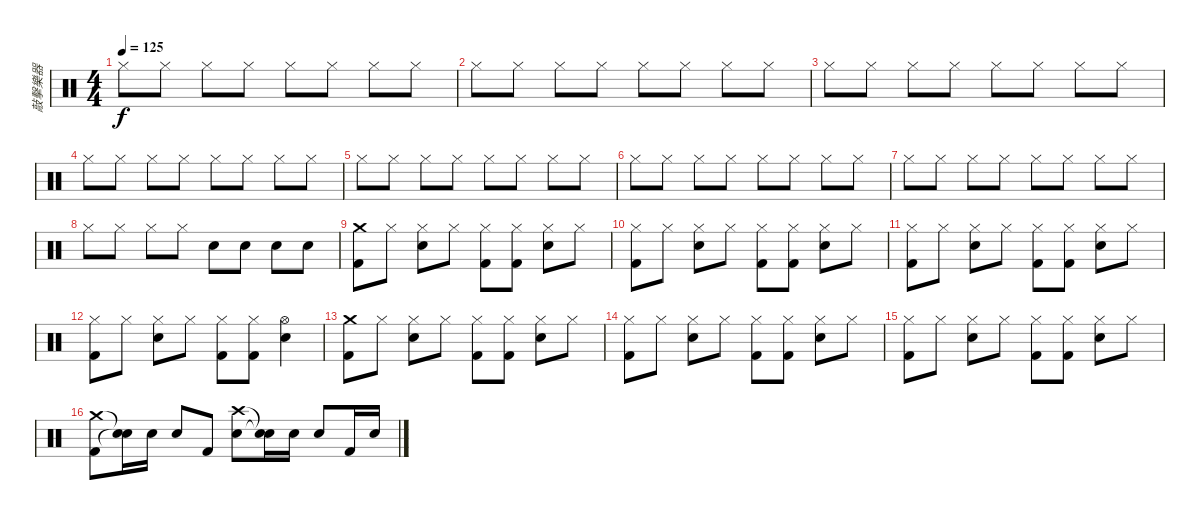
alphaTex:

\track ("敲擊樂器" "敲擊樂器") {instrument percussion}
\staff {score}
\articulation defaults
\ts (4 4)
\tempo 125
\clef neutral
\ks c "Hi-Hat (closed)".8{dy f} "Hi-Hat (closed)".8 "Hi-Hat (closed)".8 "Hi-Hat (closed)".8 "Hi-Hat (closed)".8 "Hi-Hat (closed)".8 "Hi-Hat (closed)".8 "Hi-Hat (closed)".8
|
"Hi-Hat (closed)".8 "Hi-Hat (closed)".8 "Hi-Hat (closed)".8 "Hi-Hat (closed)".8 "Hi-Hat (closed)".8 "Hi-Hat (closed)".8 "Hi-Hat (closed)".8 "Hi-Hat (closed)".8 |
"Hi-Hat (closed)".8 "Hi-Hat (closed)".8 "Hi-Hat (closed)".8 "Hi-Hat (closed)".8 "Hi-Hat (closed)".8 "Hi-Hat (closed)".8 "Hi-Hat (closed)".8 "Hi-Hat (closed)".8 |
"Hi-Hat (closed)".8 "Hi-Hat (closed)".8 "Hi-Hat (closed)".8 "Hi-Hat (closed)".8 "Hi-Hat (closed)".8 "Hi-Hat (closed)".8 "Hi-Hat (closed)".8 "Hi-Hat (closed)".8 |
"Hi-Hat (closed)".8 "Hi-Hat (closed)".8 "Hi-Hat (closed)".8 "Hi-Hat (closed)".8 "Hi-Hat (closed)".8 "Hi-Hat (closed)".8 "Hi-Hat (closed)".8 "Hi-Hat (closed)".8 |
"Hi-Hat (closed)".8 "Hi-Hat (closed)".8 "Hi-Hat (closed)".8 "Hi-Hat (closed)".8 "Hi-Hat (closed)".8 "Hi-Hat (closed)".8 "Hi-Hat (closed)".8 "Hi-Hat (closed)".8 |
"Hi-Hat (closed)".8 "Hi-Hat (closed)".8 "Hi-Hat (closed)".8 "Hi-Hat (closed)".8 "Hi-Hat (closed)".8 "Hi-Hat (closed)".8 "Hi-Hat (closed)".8 "Hi-Hat (closed)".8 |
"Hi-Hat (closed)".8 "Hi-Hat (closed)".8 "Hi-Hat (closed)".8 "Hi-Hat (closed)".8 "Snare (hit) 2".8 "Snare (hit) 2".8 "Snare (hit) 2".8 "Snare (hit) 2".8 |
("Crash medium (hit)" "Kick (hit) 2").8 "Hi-Hat (closed)".8 ("Hi-Hat (closed)" "Snare (hit) 2").8 "Hi-Hat (closed)".8 ("Hi-Hat (closed)" "Kick (hit) 2").8 ("Hi-Hat (closed)" "Kick (hit) 2").8 ("Hi-Hat (closed)" "Snare (hit) 2").8 "Hi-Hat (closed)".8 |
("Hi-Hat (closed)" "Kick (hit) 2").8 "Hi-Hat (closed)".8 ("Hi-Hat (closed)" "Snare (hit) 2").8 "Hi-Hat (closed)".8 ("Hi-Hat (closed)" "Kick (hit) 2").8 ("Hi-Hat (closed)" "Kick (hit) 2").8 ("Hi-Hat (closed)" "Snare (hit) 2").8 "Hi-Hat (closed)".8 |
("Hi-Hat (closed)" "Kick (hit) 2").8 "Hi-Hat (closed)".8 ("Hi-Hat (closed)" "Snare (hit) 2").8 "Hi-Hat (closed)".8 ("Hi-Hat (closed)" "Kick (hit) 2").8 ("Hi-Hat (closed)" "Kick (hit) 2").8 ("Hi-Hat (closed)" "Snare (hit) 2").8 "Hi-Hat (closed)".8 |
("Hi-Hat (closed)" "Kick (hit) 2").8 "Hi-Hat (closed)".8 ("Hi-Hat (closed)" "Snare (hit) 2").8 "Hi-Hat (closed)".8 ("Hi-Hat (closed)" "Kick (hit) 2").8 ("Hi-Hat (closed)" "Kick (hit) 2").8 ("Hi-Hat (open)" "Snare (hit) 2").4 |
("Crash medium (hit)" "Kick (hit) 2").8 "Hi-Hat (closed)".8 ("Hi-Hat (closed)" "Snare (hit) 2").8 "Hi-Hat (closed)".8 ("Hi-Hat (closed)" "Kick (hit) 2").8 ("Hi-Hat (closed)" "Kick (hit) 2").8 ("Hi-Hat (closed)" "Snare (hit) 2").8 "Hi-Hat (closed)".8 |
("Hi-Hat (closed)" "Kick (hit) 2").8 "Hi-Hat (closed)".8 ("Hi-Hat (closed)" "Snare (hit) 2").8 "Hi-Hat (closed)".8 ("Hi-Hat (closed)" "Kick (hit) 2").8 ("Hi-Hat (closed)" "Kick (hit) 2").8 ("Hi-Hat (closed)" "Snare (hit) 2").8 "Hi-Hat (closed)".8 |
("Hi-Hat (closed)" "Kick (hit) 2").8 "Hi-Hat (closed)".8 ("Hi-Hat (closed)" "Snare (hit) 2").8 "Hi-Hat (closed)".8 ("Hi-Hat (closed)" "Kick (hit) 2").8 ("Hi-Hat (closed)" "Kick (hit) 2").8 ("Hi-Hat (closed)" "Snare (hit) 2").8 "Hi-Hat (closed)".8 |
("Crash medium (hit)" "Kick (hit) 2").8 ("Snare (hit)"{t} "Snare (hit)"{t}).16 "Snare (hit) 2".16 "Snare (hit) 2".8 "Kick (hit) 2".8 ("Crash high (hit)" "Snare (hit) 2").8 ("Snare (hit)"{t} "Snare (hit)"{t}).16 "Snare (hit) 2".16 "Snare (hit) 2".8 "Kick (hit) 2".16 "Snare (hit) 2".16
